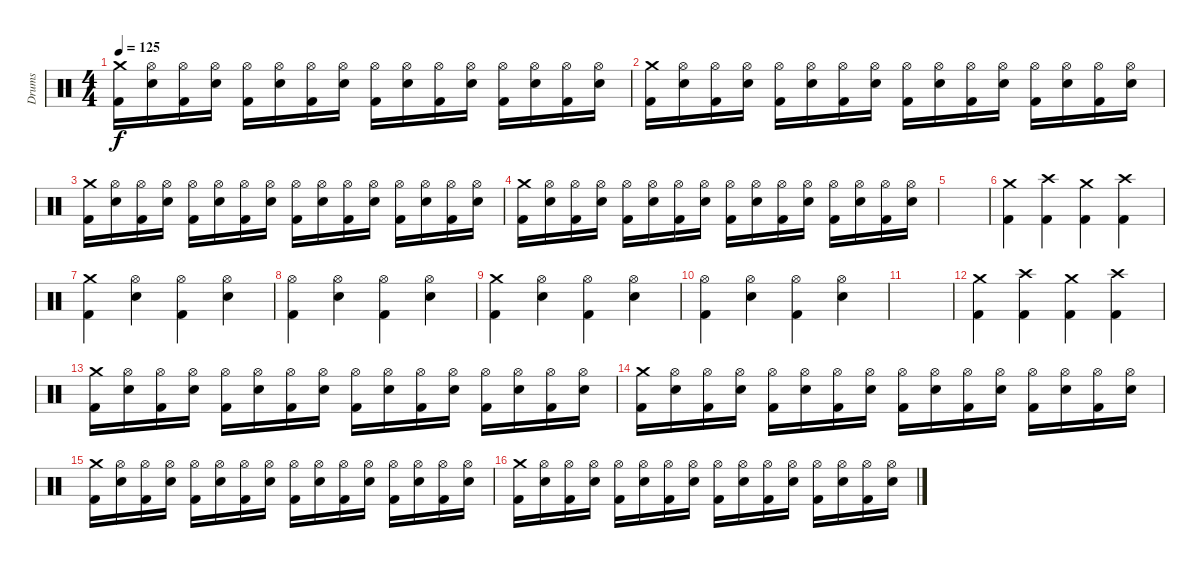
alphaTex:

\track ("Drums" "Drums") {instrument percussion}
\staff {score}
\articulation defaults
\ts (4 4)
\tempo 125
\clef neutral
\ks c
("Crash medium (hit)" "Kick (hit) 2").16{dy f} ("Hi-Hat (open)" "Electric Snare (hit)").16 ("Hi-Hat (open)" "Kick (hit) 2").16 ("Hi-Hat (open)" "Electric Snare (hit)").16 ("Hi-Hat (open)" "Kick (hit) 2").16 ("Hi-Hat (open)" "Electric Snare (hit)").16 ("Hi-Hat (open)" "Kick (hit) 2").16 ("Hi-Hat (open)" "Electric Snare (hit)").16 ("Hi-Hat (open)" "Kick (hit) 2").16 ("Hi-Hat (open)" "Electric Snare (hit)").16 ("Hi-Hat (open)" "Kick (hit) 2").16 ("Hi-Hat (open)" "Electric Snare (hit)").16 ("Hi-Hat (open)" "Kick (hit) 2").16 ("Hi-Hat (open)" "Electric Snare (hit)").16 ("Hi-Hat (open)" "Kick (hit) 2").16 ("Hi-Hat (open)" "Electric Snare (hit)").16 |
("Crash medium (hit)" "Kick (hit) 2").16 ("Hi-Hat (open)" "Electric Snare (hit)").16 ("Hi-Hat (open)" "Kick (hit) 2").16 ("Hi-Hat (open)" "Electric Snare (hit)").16 ("Hi-Hat (open)" "Kick (hit) 2").16 ("Hi-Hat (open)" "Electric Snare (hit)").16 ("Hi-Hat (open)" "Kick (hit) 2").16 ("Hi-Hat (open)" "Electric Snare (hit)").16 ("Hi-Hat (open)" "Kick (hit) 2").16 ("Hi-Hat (open)" "Electric Snare (hit)").16 ("Hi-Hat (open)" "Kick (hit) 2").16 ("Hi-Hat (open)" "Electric Snare (hit)").16 ("Hi-Hat (open)" "Kick (hit) 2").16 ("Hi-Hat (open)" "Electric Snare (hit)").16 ("Hi-Hat (open)" "Kick (hit) 2").16 ("Hi-Hat (open)" "Electric Snare (hit)").16 |
("Crash medium (hit)" "Kick (hit) 2").16 ("Hi-Hat (open)" "Electric Snare (hit)").16 ("Hi-Hat (open)" "Kick (hit) 2").16 ("Hi-Hat (open)" "Electric Snare (hit)").16 ("Hi-Hat (open)" "Kick (hit) 2").16 ("Hi-Hat (open)" "Electric Snare (hit)").16 ("Hi-Hat (open)" "Kick (hit) 2").16 ("Hi-Hat (open)" "Electric Snare (hit)").16 ("Hi-Hat (open)" "Kick (hit) 2").16 ("Hi-Hat (open)" "Electric Snare (hit)").16 ("Hi-Hat (open)" "Kick (hit) 2").16 ("Hi-Hat (open)" "Electric Snare (hit)").16 ("Hi-Hat (open)" "Kick (hit) 2").16 ("Hi-Hat (open)" "Electric Snare (hit)").16 ("Hi-Hat (open)" "Kick (hit) 2").16 ("Hi-Hat (open)" "Electric Snare (hit)").16 |
("Crash medium (hit)" "Kick (hit) 2").16 ("Hi-Hat (open)" "Electric Snare (hit)").16 ("Hi-Hat (open)" "Kick (hit) 2").16 ("Hi-Hat (open)" "Electric Snare (hit)").16 ("Hi-Hat (open)" "Kick (hit) 2").16 ("Hi-Hat (open)" "Electric Snare (hit)").16 ("Hi-Hat (open)" "Kick (hit) 2").16 ("Hi-Hat (open)" "Electric Snare (hit)").16 ("Hi-Hat (open)" "Kick (hit) 2").16 ("Hi-Hat (open)" "Electric Snare (hit)").16 ("Hi-Hat (open)" "Kick (hit) 2").16 ("Hi-Hat (open)" "Electric Snare (hit)").16 ("Hi-Hat (open)" "Kick (hit) 2").16 ("Hi-Hat (open)" "Electric Snare (hit)").16 ("Hi-Hat (open)" "Kick (hit) 2").16 ("Hi-Hat (open)" "Electric Snare (hit)").16 |
|
("Crash medium (hit)" "Kick (hit) 2").4 ("Crash high (hit)" "Kick (hit) 2").4 ("Crash medium (hit)" "Kick (hit) 2").4 ("Crash high (hit)" "Kick (hit) 2").4 |
("Crash medium (hit)" "Kick (hit) 2").4 ("Hi-Hat (open)" "Electric Snare (hit)").4 ("Hi-Hat (open)" "Kick (hit) 2").4 ("Hi-Hat (open)" "Electric Snare (hit)").4 |
("Hi-Hat (open)" "Kick (hit) 2").4 ("Hi-Hat (open)" "Electric Snare (hit)").4 ("Hi-Hat (open)" "Kick (hit) 2").4 ("Hi-Hat (open)" "Electric Snare (hit)").4 |
("Crash medium (hit)" "Kick (hit) 2").4 ("Hi-Hat (open)" "Electric Snare (hit)").4 ("Hi-Hat (open)" "Kick (hit) 2").4 ("Hi-Hat (open)" "Electric Snare (hit)").4 |
("Hi-Hat (open)" "Kick (hit) 2").4 ("Hi-Hat (open)" "Electric Snare (hit)").4 ("Hi-Hat (open)" "Kick (hit) 2").4 ("Hi-Hat (open)" "Electric Snare (hit)").4 |
|
("Crash medium (hit)" "Kick (hit) 2").4 ("Crash high (hit)" "Kick (hit) 2").4 ("Crash medium (hit)" "Kick (hit) 2").4 ("Crash high (hit)" "Kick (hit) 2").4 |
("Crash medium (hit)" "Kick (hit) 2").16 ("Hi-Hat (open)" "Electric Snare (hit)").16 ("Hi-Hat (open)" "Kick (hit) 2").16 ("Hi-Hat (open)" "Electric Snare (hit)").16 ("Hi-Hat (open)" "Kick (hit) 2").16 ("Hi-Hat (open)" "Electric Snare (hit)").16 ("Hi-Hat (open)" "Kick (hit) 2").16 ("Hi-Hat (open)" "Electric Snare (hit)").16 ("Hi-Hat (open)" "Kick (hit) 2").16 ("Hi-Hat (open)" "Electric Snare (hit)").16 ("Hi-Hat (open)" "Kick (hit) 2").16 ("Hi-Hat (open)" "Electric Snare (hit)").16 ("Hi-Hat (open)" "Kick (hit) 2").16 ("Hi-Hat (open)" "Electric Snare (hit)").16 ("Hi-Hat (open)" "Kick (hit) 2").16 ("Hi-Hat (open)" "Electric Snare (hit)").16 |
("Crash medium (hit)" "Kick (hit) 2").16 ("Hi-Hat (open)" "Electric Snare (hit)").16 ("Hi-Hat (open)" "Kick (hit) 2").16 ("Hi-Hat (open)" "Electric Snare (hit)").16 ("Hi-Hat (open)" "Kick (hit) 2").16 ("Hi-Hat (open)" "Electric Snare (hit)").16 ("Hi-Hat (open)" "Kick (hit) 2").16 ("Hi-Hat (open)" "Electric Snare (hit)").16 ("Hi-Hat (open)" "Kick (hit) 2").16 ("Hi-Hat (open)" "Electric Snare (hit)").16 ("Hi-Hat (open)" "Kick (hit) 2").16 ("Hi-Hat (open)" "Electric Snare (hit)").16 ("Hi-Hat (open)" "Kick (hit) 2").16 ("Hi-Hat (open)" "Electric Snare (hit)").16 ("Hi-Hat (open)" "Kick (hit) 2").16 ("Hi-Hat (open)" "Electric Snare (hit)").16 |
("Crash medium (hit)" "Kick (hit) 2").16 ("Hi-Hat (open)" "Electric Snare (hit)").16 ("Hi-Hat (open)" "Kick (hit) 2").16 ("Hi-Hat (open)" "Electric Snare (hit)").16 ("Hi-Hat (open)" "Kick (hit) 2").16 ("Hi-Hat (open)" "Electric Snare (hit)").16 ("Hi-Hat (open)" "Kick (hit) 2").16 ("Hi-Hat (open)" "Electric Snare (hit)").16 ("Hi-Hat (open)" "Kick (hit) 2").16 ("Hi-Hat (open)" "Electric Snare (hit)").16 ("Hi-Hat (open)" "Kick (hit) 2").16 ("Hi-Hat (open)" "Electric Snare (hit)").16 ("Hi-Hat (open)" "Kick (hit) 2").16 ("Hi-Hat (open)" "Electric Snare (hit)").16 ("Hi-Hat (open)" "Kick (hit) 2").16 ("Hi-Hat (open)" "Electric Snare (hit)").16 |
("Crash medium (hit)" "Kick (hit) 2").16 ("Hi-Hat (open)" "Electric Snare (hit)").16 ("Hi-Hat (open)" "Kick (hit) 2").16 ("Hi-Hat (open)" "Electric Snare (hit)").16 ("Hi-Hat (open)" "Kick (hit) 2").16 ("Hi-Hat (open)" "Electric Snare (hit)").16 ("Hi-Hat (open)" "Kick (hit) 2").16 ("Hi-Hat (open)" "Electric Snare (hit)").16 ("Hi-Hat (open)" "Kick (hit) 2").16 ("Hi-Hat (open)" "Electric Snare (hit)").16 ("Hi-Hat (open)" "Kick (hit) 2").16 ("Hi-Hat (open)" "Electric Snare (hit)").16 ("Hi-Hat (open)" "Kick (hit) 2").16 ("Hi-Hat (open)" "Electric Snare (hit)").16 ("Hi-Hat (open)" "Kick (hit) 2").16 ("Hi-Hat (open)" "Electric Snare (hit)").16
